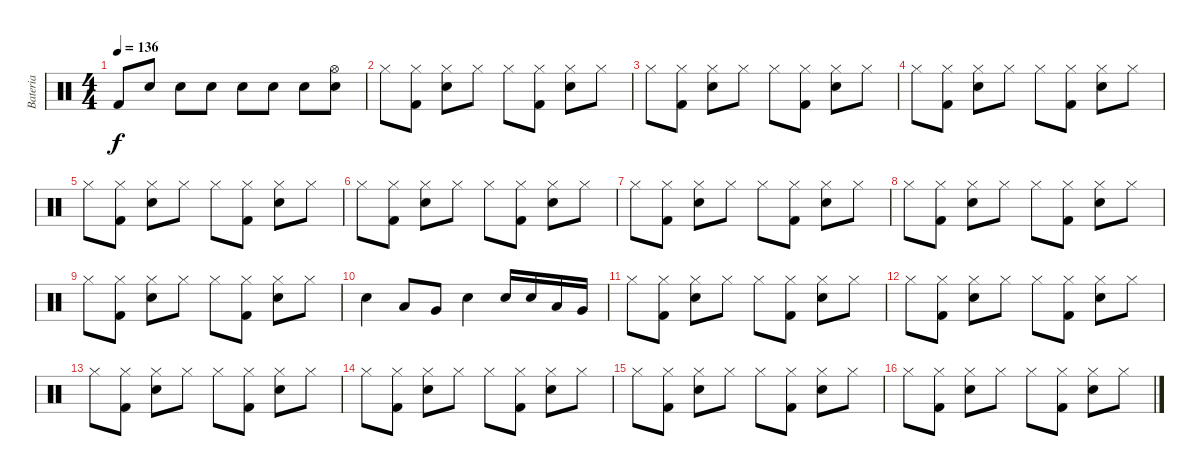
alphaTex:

\track ("Bateria" "Bateria") {instrument percussion}
\staff {score}
\articulation defaults
\ts (4 4)
\tempo 136
\clef neutral
\ks c "Kick (hit) 2".8{dy f} "Snare (hit) 2".8 "Snare (hit) 2".8 "Snare (hit) 2".8 "Snare (hit) 2".8 "Snare (hit) 2".8 "Snare (hit) 2".8
("Hi-Hat (open)" "Snare (hit) 2").8 |
"Hi-Hat (closed)".8 ("Kick (hit) 2" "Hi-Hat (closed)").8 ("Snare (hit) 2" "Hi-Hat (closed)").8 "Hi-Hat (closed)".8 "Hi-Hat (closed)".8 ("Kick (hit) 2" "Hi-Hat (closed)").8 ("Hi-Hat (closed)" "Snare (hit) 2").8 "Hi-Hat (closed)".8 |
"Hi-Hat (closed)".8 ("Kick (hit) 2" "Hi-Hat (closed)").8 ("Snare (hit) 2" "Hi-Hat (closed)").8 "Hi-Hat (closed)".8 "Hi-Hat (closed)".8 ("Kick (hit) 2" "Hi-Hat (closed)").8 ("Hi-Hat (closed)" "Snare (hit) 2").8 "Hi-Hat (closed)".8 |
"Hi-Hat (closed)".8 ("Kick (hit) 2" "Hi-Hat (closed)").8 ("Snare (hit) 2" "Hi-Hat (closed)").8 "Hi-Hat (closed)".8 "Hi-Hat (closed)".8 ("Kick (hit) 2" "Hi-Hat (closed)").8 ("Hi-Hat (closed)" "Snare (hit) 2").8 "Hi-Hat (closed)".8 |
"Hi-Hat (closed)".8 ("Kick (hit) 2" "Hi-Hat (closed)").8 ("Snare (hit) 2" "Hi-Hat (closed)").8 "Hi-Hat (closed)".8 "Hi-Hat (closed)".8 ("Kick (hit) 2" "Hi-Hat (closed)").8 ("Hi-Hat (closed)" "Snare (hit) 2").8 "Hi-Hat (closed)".8 |
"Hi-Hat (closed)".8 ("Kick (hit) 2" "Hi-Hat (closed)").8 ("Snare (hit) 2" "Hi-Hat (closed)").8 "Hi-Hat (closed)".8 "Hi-Hat (closed)".8 ("Kick (hit) 2" "Hi-Hat (closed)").8 ("Hi-Hat (closed)" "Snare (hit) 2").8 "Hi-Hat (closed)".8 |
"Hi-Hat (closed)".8 ("Kick (hit) 2" "Hi-Hat (closed)").8 ("Snare (hit) 2" "Hi-Hat (closed)").8 "Hi-Hat (closed)".8 "Hi-Hat (closed)".8 ("Kick (hit) 2" "Hi-Hat (closed)").8 ("Hi-Hat (closed)" "Snare (hit) 2").8 "Hi-Hat (closed)".8 |
"Hi-Hat (closed)".8 ("Kick (hit) 2" "Hi-Hat (closed)").8 ("Snare (hit) 2" "Hi-Hat (closed)").8 "Hi-Hat (closed)".8 "Hi-Hat (closed)".8 ("Kick (hit) 2" "Hi-Hat (closed)").8 ("Hi-Hat (closed)" "Snare (hit) 2").8 "Hi-Hat (closed)".8 |
"Hi-Hat (closed)".8 ("Kick (hit) 2" "Hi-Hat (closed)").8 ("Snare (hit) 2" "Hi-Hat (closed)").8 "Hi-Hat (closed)".8 "Hi-Hat (closed)".8 ("Kick (hit) 2" "Hi-Hat (closed)").8 ("Hi-Hat (closed)" "Snare (hit) 2").8 "Hi-Hat (closed)".8 |
"Snare (hit) 2".4 "Low Tom (hit)".8 "Very Low Tom (hit)".8 "Snare (hit) 2".4 "Snare (hit) 2".16 "Snare (hit) 2".16 "Low Tom (hit)".16 "Very Low Tom (hit)".16 |
"Hi-Hat (closed)".8 ("Kick (hit) 2" "Hi-Hat (closed)").8 ("Snare (hit) 2" "Hi-Hat (closed)").8 "Hi-Hat (closed)".8 "Hi-Hat (closed)".8 ("Kick (hit) 2" "Hi-Hat (closed)").8 ("Hi-Hat (closed)" "Snare (hit) 2").8 "Hi-Hat (closed)".8 |
"Hi-Hat (closed)".8 ("Kick (hit) 2" "Hi-Hat (closed)").8 ("Snare (hit) 2" "Hi-Hat (closed)").8 "Hi-Hat (closed)".8 "Hi-Hat (closed)".8 ("Kick (hit) 2" "Hi-Hat (closed)").8 ("Hi-Hat (closed)" "Snare (hit) 2").8 "Hi-Hat (closed)".8 |
"Hi-Hat (closed)".8 ("Kick (hit) 2" "Hi-Hat (closed)").8 ("Snare (hit) 2" "Hi-Hat (closed)").8 "Hi-Hat (closed)".8 "Hi-Hat (closed)".8 ("Kick (hit) 2" "Hi-Hat (closed)").8 ("Hi-Hat (closed)" "Snare (hit) 2").8 "Hi-Hat (closed)".8 |
"Hi-Hat (closed)".8 ("Kick (hit) 2" "Hi-Hat (closed)").8 ("Snare (hit) 2" "Hi-Hat (closed)").8 "Hi-Hat (closed)".8 "Hi-Hat (closed)".8 ("Kick (hit) 2" "Hi-Hat (closed)").8 ("Hi-Hat (closed)" "Snare (hit) 2").8 "Hi-Hat (closed)".8 |
"Hi-Hat (closed)".8 ("Kick (hit) 2" "Hi-Hat (closed)").8 ("Snare (hit) 2" "Hi-Hat (closed)").8 "Hi-Hat (closed)".8 "Hi-Hat (closed)".8 ("Kick (hit) 2" "Hi-Hat (closed)").8 ("Hi-Hat (closed)" "Snare (hit) 2").8 "Hi-Hat (closed)".8 |
"Hi-Hat (closed)".8 ("Kick (hit) 2" "Hi-Hat (closed)").8 ("Snare (hit) 2" "Hi-Hat (closed)").8 "Hi-Hat (closed)".8 "Hi-Hat (closed)".8 ("Kick (hit) 2" "Hi-Hat (closed)").8 ("Hi-Hat (closed)" "Snare (hit) 2").8 "Hi-Hat (closed)".8
